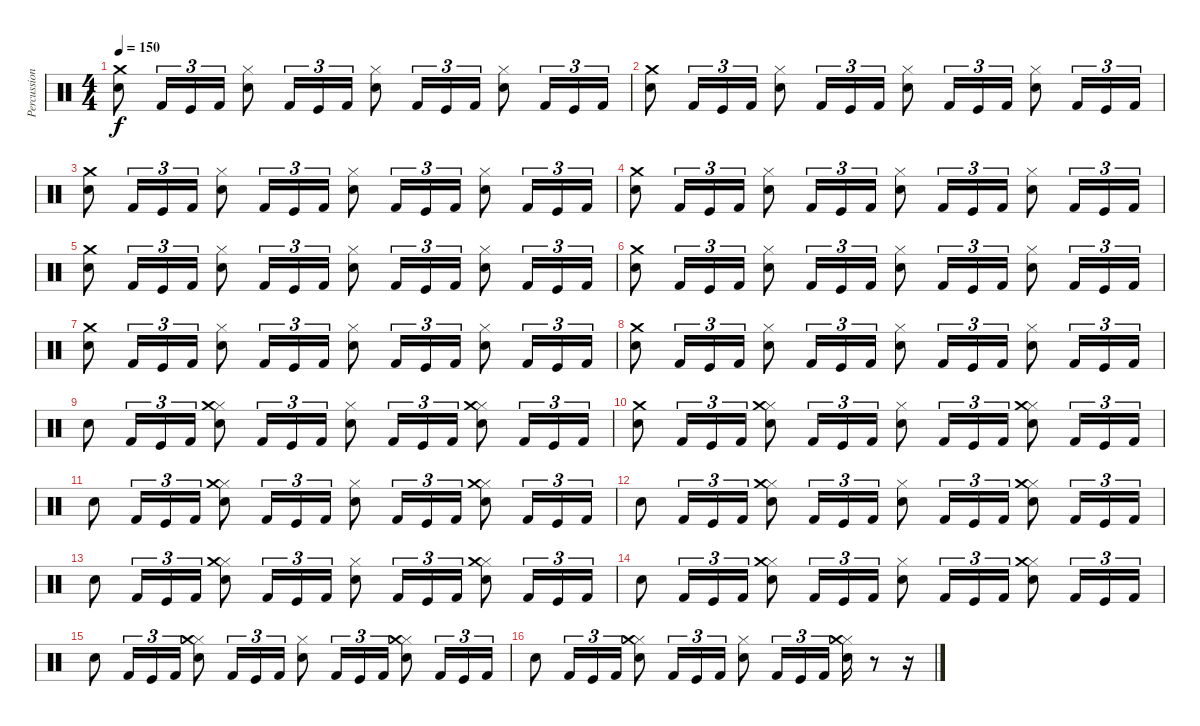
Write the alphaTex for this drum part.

\track ("Percussion" "Percussion") {instrument percussion}
\staff {score}
\articulation defaults
\ts (4 4)
\tempo 150
\clef neutral
\ks c
("Snare (hit) 2" "Crash medium (hit)").8{dy f} "Kick (hit) 2".16{tu (3 2)} "Kick (hit)".16{tu (3 2)} "Kick (hit) 2".16{tu (3 2)} ("Hi-Hat (closed)" "Snare (hit) 2").8 "Kick (hit) 2".16{tu (3 2)} "Kick (hit)".16{tu (3 2)} "Kick (hit) 2".16{tu (3 2)} ("Snare (hit) 2" "Hi-Hat (closed)").8 "Kick (hit) 2".16{tu (3 2)} "Kick (hit)".16{tu (3 2)} "Kick (hit) 2".16{tu (3 2)} ("Hi-Hat (closed)" "Snare (hit) 2").8 "Kick (hit) 2".16{tu (3 2)} "Kick (hit)".16{tu (3 2)} "Kick (hit) 2".16{tu (3 2)} |
("Snare (hit) 2" "Crash medium (hit)").8 "Kick (hit) 2".16{tu (3 2)} "Kick (hit)".16{tu (3 2)} "Kick (hit) 2".16{tu (3 2)} ("Hi-Hat (closed)" "Snare (hit) 2").8 "Kick (hit) 2".16{tu (3 2)} "Kick (hit)".16{tu (3 2)} "Kick (hit) 2".16{tu (3 2)} ("Snare (hit) 2" "Hi-Hat (closed)").8 "Kick (hit) 2".16{tu (3 2)} "Kick (hit)".16{tu (3 2)} "Kick (hit) 2".16{tu (3 2)} ("Hi-Hat (closed)" "Snare (hit) 2").8 "Kick (hit) 2".16{tu (3 2)} "Kick (hit)".16{tu (3 2)} "Kick (hit) 2".16{tu (3 2)} |
("Snare (hit) 2" "Crash medium (hit)").8 "Kick (hit) 2".16{tu (3 2)} "Kick (hit)".16{tu (3 2)} "Kick (hit) 2".16{tu (3 2)} ("Hi-Hat (closed)" "Snare (hit) 2").8 "Kick (hit) 2".16{tu (3 2)} "Kick (hit)".16{tu (3 2)} "Kick (hit) 2".16{tu (3 2)} ("Snare (hit) 2" "Hi-Hat (closed)").8 "Kick (hit) 2".16{tu (3 2)} "Kick (hit)".16{tu (3 2)} "Kick (hit) 2".16{tu (3 2)} ("Hi-Hat (closed)" "Snare (hit) 2").8 "Kick (hit) 2".16{tu (3 2)} "Kick (hit)".16{tu (3 2)} "Kick (hit) 2".16{tu (3 2)} |
("Snare (hit) 2" "Crash medium (hit)").8 "Kick (hit) 2".16{tu (3 2)} "Kick (hit)".16{tu (3 2)} "Kick (hit) 2".16{tu (3 2)} ("Hi-Hat (closed)" "Snare (hit) 2").8 "Kick (hit) 2".16{tu (3 2)} "Kick (hit)".16{tu (3 2)} "Kick (hit) 2".16{tu (3 2)} ("Snare (hit) 2" "Hi-Hat (closed)").8 "Kick (hit) 2".16{tu (3 2)} "Kick (hit)".16{tu (3 2)} "Kick (hit) 2".16{tu (3 2)} ("Hi-Hat (closed)" "Snare (hit) 2").8 "Kick (hit) 2".16{tu (3 2)} "Kick (hit)".16{tu (3 2)} "Kick (hit) 2".16{tu (3 2)} |
("Snare (hit) 2" "Crash medium (hit)").8 "Kick (hit) 2".16{tu (3 2)} "Kick (hit)".16{tu (3 2)} "Kick (hit) 2".16{tu (3 2)} ("Hi-Hat (closed)" "Snare (hit) 2").8 "Kick (hit) 2".16{tu (3 2)} "Kick (hit)".16{tu (3 2)} "Kick (hit) 2".16{tu (3 2)} ("Snare (hit) 2" "Hi-Hat (closed)").8 "Kick (hit) 2".16{tu (3 2)} "Kick (hit)".16{tu (3 2)} "Kick (hit) 2".16{tu (3 2)} ("Hi-Hat (closed)" "Snare (hit) 2").8 "Kick (hit) 2".16{tu (3 2)} "Kick (hit)".16{tu (3 2)} "Kick (hit) 2".16{tu (3 2)} |
("Snare (hit) 2" "Crash medium (hit)").8 "Kick (hit) 2".16{tu (3 2)} "Kick (hit)".16{tu (3 2)} "Kick (hit) 2".16{tu (3 2)} ("Hi-Hat (closed)" "Snare (hit) 2").8 "Kick (hit) 2".16{tu (3 2)} "Kick (hit)".16{tu (3 2)} "Kick (hit) 2".16{tu (3 2)} ("Snare (hit) 2" "Hi-Hat (closed)").8 "Kick (hit) 2".16{tu (3 2)} "Kick (hit)".16{tu (3 2)} "Kick (hit) 2".16{tu (3 2)} ("Hi-Hat (closed)" "Snare (hit) 2").8 "Kick (hit) 2".16{tu (3 2)} "Kick (hit)".16{tu (3 2)} "Kick (hit) 2".16{tu (3 2)} |
("Snare (hit) 2" "Crash medium (hit)").8 "Kick (hit) 2".16{tu (3 2)} "Kick (hit)".16{tu (3 2)} "Kick (hit) 2".16{tu (3 2)} ("Hi-Hat (closed)" "Snare (hit) 2").8 "Kick (hit) 2".16{tu (3 2)} "Kick (hit)".16{tu (3 2)} "Kick (hit) 2".16{tu (3 2)} ("Snare (hit) 2" "Hi-Hat (closed)").8 "Kick (hit) 2".16{tu (3 2)} "Kick (hit)".16{tu (3 2)} "Kick (hit) 2".16{tu (3 2)} ("Hi-Hat (closed)" "Snare (hit) 2").8 "Kick (hit) 2".16{tu (3 2)} "Kick (hit)".16{tu (3 2)} "Kick (hit) 2".16{tu (3 2)} |
("Snare (hit) 2" "Crash medium (hit)").8 "Kick (hit) 2".16{tu (3 2)} "Kick (hit)".16{tu (3 2)} "Kick (hit) 2".16{tu (3 2)} ("Hi-Hat (closed)" "Snare (hit) 2").8 "Kick (hit) 2".16{tu (3 2)} "Kick (hit)".16{tu (3 2)} "Kick (hit) 2".16{tu (3 2)} ("Snare (hit) 2" "Hi-Hat (closed)").8 "Kick (hit) 2".16{tu (3 2)} "Kick (hit)".16{tu (3 2)} "Kick (hit) 2".16{tu (3 2)} ("Hi-Hat (closed)" "Snare (hit) 2").8 "Kick (hit) 2".16{tu (3 2)} "Kick (hit)".16{tu (3 2)} "Kick (hit) 2".16{tu (3 2)} |
"Snare (hit) 2".8 "Kick (hit) 2".16{tu (3 2)} "Kick (hit)".16{tu (3 2)} "Kick (hit) 2".16{tu (3 2)} ("Hi-Hat (closed)" "Snare (hit) 2" "Crash medium (hit)").8 "Kick (hit) 2".16{tu (3 2)} "Kick (hit)".16{tu (3 2)} "Kick (hit) 2".16{tu (3 2)} ("Snare (hit) 2" "Hi-Hat (closed)").8 "Kick (hit) 2".16{tu (3 2)} "Kick (hit)".16{tu (3 2)} "Kick (hit) 2".16{tu (3 2)} ("Hi-Hat (closed)" "Snare (hit) 2" "Crash medium (hit)").8 "Kick (hit) 2".16{tu (3 2)} "Kick (hit)".16{tu (3 2)} "Kick (hit) 2".16{tu (3 2)} |
("Snare (hit) 2" "Crash medium (hit)").8 "Kick (hit) 2".16{tu (3 2)} "Kick (hit)".16{tu (3 2)} "Kick (hit) 2".16{tu (3 2)} ("Hi-Hat (closed)" "Snare (hit) 2" "Crash medium (hit)").8 "Kick (hit) 2".16{tu (3 2)} "Kick (hit)".16{tu (3 2)} "Kick (hit) 2".16{tu (3 2)} ("Snare (hit) 2" "Hi-Hat (closed)").8 "Kick (hit) 2".16{tu (3 2)} "Kick (hit)".16{tu (3 2)} "Kick (hit) 2".16{tu (3 2)} ("Hi-Hat (closed)" "Snare (hit) 2" "Crash medium (hit)").8 "Kick (hit) 2".16{tu (3 2)} "Kick (hit)".16{tu (3 2)} "Kick (hit) 2".16{tu (3 2)} |
"Snare (hit) 2".8 "Kick (hit) 2".16{tu (3 2)} "Kick (hit)".16{tu (3 2)} "Kick (hit) 2".16{tu (3 2)} ("Hi-Hat (closed)" "Snare (hit) 2" "Crash medium (hit)").8 "Kick (hit) 2".16{tu (3 2)} "Kick (hit)".16{tu (3 2)} "Kick (hit) 2".16{tu (3 2)} ("Snare (hit) 2" "Hi-Hat (closed)").8 "Kick (hit) 2".16{tu (3 2)} "Kick (hit)".16{tu (3 2)} "Kick (hit) 2".16{tu (3 2)} ("Hi-Hat (closed)" "Snare (hit) 2" "Crash medium (hit)").8 "Kick (hit) 2".16{tu (3 2)} "Kick (hit)".16{tu (3 2)} "Kick (hit) 2".16{tu (3 2)} |
"Snare (hit) 2".8 "Kick (hit) 2".16{tu (3 2)} "Kick (hit)".16{tu (3 2)} "Kick (hit) 2".16{tu (3 2)} ("Hi-Hat (closed)" "Snare (hit) 2" "Crash medium (hit)").8 "Kick (hit) 2".16{tu (3 2)} "Kick (hit)".16{tu (3 2)} "Kick (hit) 2".16{tu (3 2)} ("Snare (hit) 2" "Hi-Hat (closed)").8 "Kick (hit) 2".16{tu (3 2)} "Kick (hit)".16{tu (3 2)} "Kick (hit) 2".16{tu (3 2)} ("Hi-Hat (closed)" "Snare (hit) 2" "Crash medium (hit)").8 "Kick (hit) 2".16{tu (3 2)} "Kick (hit)".16{tu (3 2)} "Kick (hit) 2".16{tu (3 2)} |
"Snare (hit) 2".8 "Kick (hit) 2".16{tu (3 2)} "Kick (hit)".16{tu (3 2)} "Kick (hit) 2".16{tu (3 2)} ("Hi-Hat (closed)" "Snare (hit) 2" "Crash medium (hit)").8 "Kick (hit) 2".16{tu (3 2)} "Kick (hit)".16{tu (3 2)} "Kick (hit) 2".16{tu (3 2)} ("Snare (hit) 2" "Hi-Hat (closed)").8 "Kick (hit) 2".16{tu (3 2)} "Kick (hit)".16{tu (3 2)} "Kick (hit) 2".16{tu (3 2)} ("Hi-Hat (closed)" "Snare (hit) 2" "Crash medium (hit)").8 "Kick (hit) 2".16{tu (3 2)} "Kick (hit)".16{tu (3 2)} "Kick (hit) 2".16{tu (3 2)} |
"Snare (hit) 2".8 "Kick (hit) 2".16{tu (3 2)} "Kick (hit)".16{tu (3 2)} "Kick (hit) 2".16{tu (3 2)} ("Hi-Hat (closed)" "Snare (hit) 2" "Crash medium (hit)").8 "Kick (hit) 2".16{tu (3 2)} "Kick (hit)".16{tu (3 2)} "Kick (hit) 2".16{tu (3 2)} ("Snare (hit) 2" "Hi-Hat (closed)").8 "Kick (hit) 2".16{tu (3 2)} "Kick (hit)".16{tu (3 2)} "Kick (hit) 2".16{tu (3 2)} ("Hi-Hat (closed)" "Snare (hit) 2" "Crash medium (hit)").8 "Kick (hit) 2".16{tu (3 2)} "Kick (hit)".16{tu (3 2)} "Kick (hit) 2".16{tu (3 2)} |
"Snare (hit) 2".8 "Kick (hit) 2".16{tu (3 2)} "Kick (hit)".16{tu (3 2)} "Kick (hit) 2".16{tu (3 2)} ("Hi-Hat (closed)" "Snare (hit) 2" "Crash medium (hit)").8 "Kick (hit) 2".16{tu (3 2)} "Kick (hit)".16{tu (3 2)} "Kick (hit) 2".16{tu (3 2)} ("Snare (hit) 2" "Hi-Hat (closed)").8 "Kick (hit) 2".16{tu (3 2)} "Kick (hit)".16{tu (3 2)} "Kick (hit) 2".16{tu (3 2)} ("Hi-Hat (closed)" "Snare (hit) 2" "Crash medium (hit)").8 "Kick (hit) 2".16{tu (3 2)} "Kick (hit)".16{tu (3 2)} "Kick (hit) 2".16{tu (3 2)} |
"Snare (hit) 2".8 "Kick (hit) 2".16{tu (3 2)} "Kick (hit)".16{tu (3 2)} "Kick (hit) 2".16{tu (3 2)} ("Hi-Hat (closed)" "Snare (hit) 2" "Crash medium (hit)").8 "Kick (hit) 2".16{tu (3 2)} "Kick (hit)".16{tu (3 2)} "Kick (hit) 2".16{tu (3 2)} ("Snare (hit) 2" "Hi-Hat (closed)").8 "Kick (hit) 2".16{tu (3 2)} "Kick (hit)".16{tu (3 2)} "Kick (hit) 2".16{tu (3 2)} ("Hi-Hat (closed)" "Snare (hit) 2" "Crash medium (hit)").16 r.8 r.16
